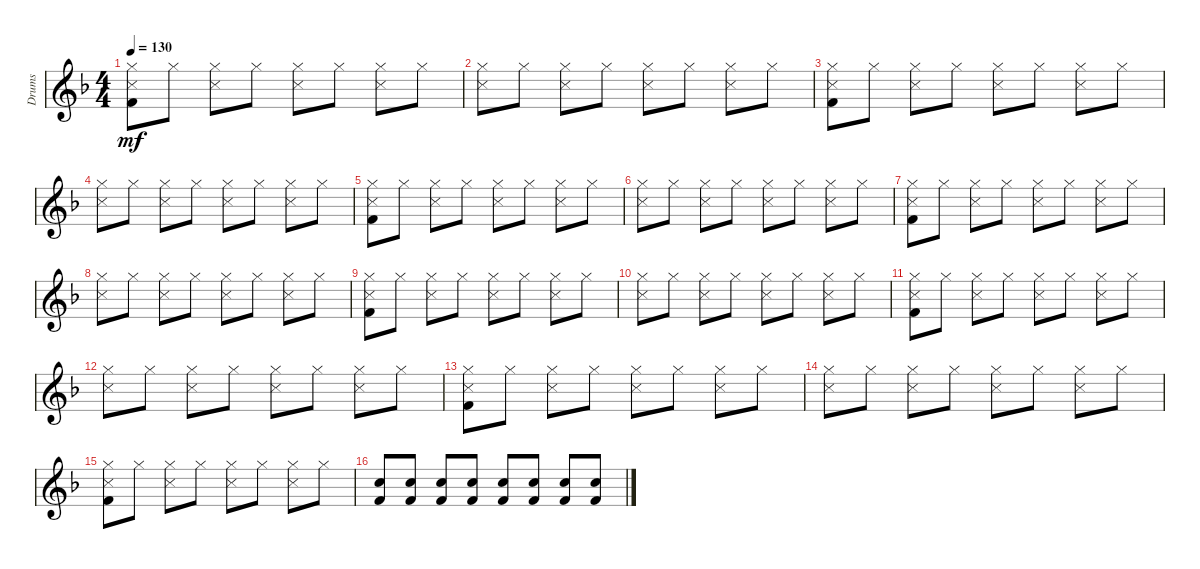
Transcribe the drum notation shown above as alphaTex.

\defaultSystemsLayout 4
\bracketExtendMode groupsimilarinstruments
\otherSystemsTrackNameOrientation horizontal
\track ("Drumkit" "Drums") {instrument percussion}
\staff {score}
\articulation defaults
\ts (4 4)
\tempo 130
\clef g2
\ks f
("Hi-Hat (closed)"{acc forcenatural} "Snare (side stick) 3"{acc forcenatural} "Kick (hit) 2"{acc forcenatural}).8{dy mf beam Down} "Hi-Hat (closed)"{acc forcenatural}.8{beam Down} ("Hi-Hat (closed)"{acc forcenatural} "Snare (side stick) 3"{acc forcenatural}).8{beam Down} "Hi-Hat (closed)"{acc forcenatural}.8{beam Down} ("Hi-Hat (closed)"{acc forcenatural} "Snare (side stick) 3"{acc forcenatural}).8{beam Down} "Hi-Hat (closed)"{acc forcenatural}.8{beam Down} ("Hi-Hat (closed)"{acc forcenatural} "Snare (side stick) 3"{acc forcenatural}).8{beam Down} "Hi-Hat (closed)"{acc forcenatural}.8{beam Down} |
("Hi-Hat (closed)"{acc forcenatural} "Snare (side stick) 3"{acc forcenatural}).8{beam Down} "Hi-Hat (closed)"{acc forcenatural}.8{beam Down} ("Hi-Hat (closed)"{acc forcenatural} "Snare (side stick) 3"{acc forcenatural}).8{beam Down} "Hi-Hat (closed)"{acc forcenatural}.8{beam Down} ("Hi-Hat (closed)"{acc forcenatural} "Snare (side stick) 3"{acc forcenatural}).8{beam Down} "Hi-Hat (closed)"{acc forcenatural}.8{beam Down} ("Hi-Hat (closed)"{acc forcenatural} "Snare (side stick) 3"{acc forcenatural}).8{beam Down} "Hi-Hat (closed)"{acc forcenatural}.8{beam Down} |
("Hi-Hat (closed)"{acc forcenatural} "Snare (side stick) 3"{acc forcenatural} "Kick (hit) 2"{acc forcenatural}).8{beam Down} "Hi-Hat (closed)"{acc forcenatural}.8{beam Down} ("Hi-Hat (closed)"{acc forcenatural} "Snare (side stick) 3"{acc forcenatural}).8{beam Down} "Hi-Hat (closed)"{acc forcenatural}.8{beam Down} ("Hi-Hat (closed)"{acc forcenatural} "Snare (side stick) 3"{acc forcenatural}).8{beam Down} "Hi-Hat (closed)"{acc forcenatural}.8{beam Down} ("Hi-Hat (closed)"{acc forcenatural} "Snare (side stick) 3"{acc forcenatural}).8{beam Down} "Hi-Hat (closed)"{acc forcenatural}.8{beam Down} |
("Hi-Hat (closed)"{acc forcenatural} "Snare (side stick) 3"{acc forcenatural}).8{beam Down} "Hi-Hat (closed)"{acc forcenatural}.8{beam Down} ("Hi-Hat (closed)"{acc forcenatural} "Snare (side stick) 3"{acc forcenatural}).8{beam Down} "Hi-Hat (closed)"{acc forcenatural}.8{beam Down} ("Hi-Hat (closed)"{acc forcenatural} "Snare (side stick) 3"{acc forcenatural}).8{beam Down} "Hi-Hat (closed)"{acc forcenatural}.8{beam Down} ("Hi-Hat (closed)"{acc forcenatural} "Snare (side stick) 3"{acc forcenatural}).8{beam Down} "Hi-Hat (closed)"{acc forcenatural}.8{beam Down} |
("Hi-Hat (closed)"{acc forcenatural} "Snare (side stick) 3"{acc forcenatural} "Kick (hit) 2"{acc forcenatural}).8{beam Down} "Hi-Hat (closed)"{acc forcenatural}.8{beam Down} ("Hi-Hat (closed)"{acc forcenatural} "Snare (side stick) 3"{acc forcenatural}).8{beam Down} "Hi-Hat (closed)"{acc forcenatural}.8{beam Down} ("Hi-Hat (closed)"{acc forcenatural} "Snare (side stick) 3"{acc forcenatural}).8{beam Down} "Hi-Hat (closed)"{acc forcenatural}.8{beam Down} ("Hi-Hat (closed)"{acc forcenatural} "Snare (side stick) 3"{acc forcenatural}).8{beam Down} "Hi-Hat (closed)"{acc forcenatural}.8{beam Down} |
("Hi-Hat (closed)"{acc forcenatural} "Snare (side stick) 3"{acc forcenatural}).8{beam Down} "Hi-Hat (closed)"{acc forcenatural}.8{beam Down} ("Hi-Hat (closed)"{acc forcenatural} "Snare (side stick) 3"{acc forcenatural}).8{beam Down} "Hi-Hat (closed)"{acc forcenatural}.8{beam Down} ("Hi-Hat (closed)"{acc forcenatural} "Snare (side stick) 3"{acc forcenatural}).8{beam Down} "Hi-Hat (closed)"{acc forcenatural}.8{beam Down} ("Hi-Hat (closed)"{acc forcenatural} "Snare (side stick) 3"{acc forcenatural}).8{beam Down} "Hi-Hat (closed)"{acc forcenatural}.8{beam Down} |
("Hi-Hat (closed)"{acc forcenatural} "Snare (side stick) 3"{acc forcenatural} "Kick (hit) 2"{acc forcenatural}).8{beam Down} "Hi-Hat (closed)"{acc forcenatural}.8{beam Down} ("Hi-Hat (closed)"{acc forcenatural} "Snare (side stick) 3"{acc forcenatural}).8{beam Down} "Hi-Hat (closed)"{acc forcenatural}.8{beam Down} ("Hi-Hat (closed)"{acc forcenatural} "Snare (side stick) 3"{acc forcenatural}).8{beam Down} "Hi-Hat (closed)"{acc forcenatural}.8{beam Down} ("Hi-Hat (closed)"{acc forcenatural} "Snare (side stick) 3"{acc forcenatural}).8{beam Down} "Hi-Hat (closed)"{acc forcenatural}.8{beam Down} |
("Hi-Hat (closed)"{acc forcenatural} "Snare (side stick) 3"{acc forcenatural}).8{beam Down} "Hi-Hat (closed)"{acc forcenatural}.8{beam Down} ("Hi-Hat (closed)"{acc forcenatural} "Snare (side stick) 3"{acc forcenatural}).8{beam Down} "Hi-Hat (closed)"{acc forcenatural}.8{beam Down} ("Hi-Hat (closed)"{acc forcenatural} "Snare (side stick) 3"{acc forcenatural}).8{beam Down} "Hi-Hat (closed)"{acc forcenatural}.8{beam Down} ("Hi-Hat (closed)"{acc forcenatural} "Snare (side stick) 3"{acc forcenatural}).8{beam Down} "Hi-Hat (closed)"{acc forcenatural}.8{beam Down} |
("Hi-Hat (closed)"{acc forcenatural} "Snare (side stick) 3"{acc forcenatural} "Kick (hit) 2"{acc forcenatural}).8{beam Down} "Hi-Hat (closed)"{acc forcenatural}.8{beam Down} ("Hi-Hat (closed)"{acc forcenatural} "Snare (side stick) 3"{acc forcenatural}).8{beam Down} "Hi-Hat (closed)"{acc forcenatural}.8{beam Down} ("Hi-Hat (closed)"{acc forcenatural} "Snare (side stick) 3"{acc forcenatural}).8{beam Down} "Hi-Hat (closed)"{acc forcenatural}.8{beam Down} ("Hi-Hat (closed)"{acc forcenatural} "Snare (side stick) 3"{acc forcenatural}).8{beam Down} "Hi-Hat (closed)"{acc forcenatural}.8{beam Down} |
("Hi-Hat (closed)"{acc forcenatural} "Snare (side stick) 3"{acc forcenatural}).8{beam Down} "Hi-Hat (closed)"{acc forcenatural}.8{beam Down} ("Hi-Hat (closed)"{acc forcenatural} "Snare (side stick) 3"{acc forcenatural}).8{beam Down} "Hi-Hat (closed)"{acc forcenatural}.8{beam Down} ("Hi-Hat (closed)"{acc forcenatural} "Snare (side stick) 3"{acc forcenatural}).8{beam Down} "Hi-Hat (closed)"{acc forcenatural}.8{beam Down} ("Hi-Hat (closed)"{acc forcenatural} "Snare (side stick) 3"{acc forcenatural}).8{beam Down} "Hi-Hat (closed)"{acc forcenatural}.8{beam Down} |
("Hi-Hat (closed)"{acc forcenatural} "Snare (side stick) 3"{acc forcenatural} "Kick (hit) 2"{acc forcenatural}).8{beam Down} "Hi-Hat (closed)"{acc forcenatural}.8{beam Down} ("Hi-Hat (closed)"{acc forcenatural} "Snare (side stick) 3"{acc forcenatural}).8{beam Down} "Hi-Hat (closed)"{acc forcenatural}.8{beam Down} ("Hi-Hat (closed)"{acc forcenatural} "Snare (side stick) 3"{acc forcenatural}).8{beam Down} "Hi-Hat (closed)"{acc forcenatural}.8{beam Down} ("Hi-Hat (closed)"{acc forcenatural} "Snare (side stick) 3"{acc forcenatural}).8{beam Down} "Hi-Hat (closed)"{acc forcenatural}.8{beam Down} |
("Hi-Hat (closed)"{acc forcenatural} "Snare (side stick) 3"{acc forcenatural}).8{beam Down} "Hi-Hat (closed)"{acc forcenatural}.8{beam Down} ("Hi-Hat (closed)"{acc forcenatural} "Snare (side stick) 3"{acc forcenatural}).8{beam Down} "Hi-Hat (closed)"{acc forcenatural}.8{beam Down} ("Hi-Hat (closed)"{acc forcenatural} "Snare (side stick) 3"{acc forcenatural}).8{beam Down} "Hi-Hat (closed)"{acc forcenatural}.8{beam Down} ("Hi-Hat (closed)"{acc forcenatural} "Snare (side stick) 3"{acc forcenatural}).8{beam Down} "Hi-Hat (closed)"{acc forcenatural}.8{beam Down} |
("Hi-Hat (closed)"{acc forcenatural} "Snare (side stick) 3"{acc forcenatural} "Kick (hit) 2"{acc forcenatural}).8{beam Down} "Hi-Hat (closed)"{acc forcenatural}.8{beam Down} ("Hi-Hat (closed)"{acc forcenatural} "Snare (side stick) 3"{acc forcenatural}).8{beam Down} "Hi-Hat (closed)"{acc forcenatural}.8{beam Down} ("Hi-Hat (closed)"{acc forcenatural} "Snare (side stick) 3"{acc forcenatural}).8{beam Down} "Hi-Hat (closed)"{acc forcenatural}.8{beam Down} ("Hi-Hat (closed)"{acc forcenatural} "Snare (side stick) 3"{acc forcenatural}).8{beam Down} "Hi-Hat (closed)"{acc forcenatural}.8{beam Down} |
("Hi-Hat (closed)"{acc forcenatural} "Snare (side stick) 3"{acc forcenatural}).8{beam Down} "Hi-Hat (closed)"{acc forcenatural}.8{beam Down} ("Hi-Hat (closed)"{acc forcenatural} "Snare (side stick) 3"{acc forcenatural}).8{beam Down} "Hi-Hat (closed)"{acc forcenatural}.8{beam Down} ("Hi-Hat (closed)"{acc forcenatural} "Snare (side stick) 3"{acc forcenatural}).8{beam Down} "Hi-Hat (closed)"{acc forcenatural}.8{beam Down} ("Hi-Hat (closed)"{acc forcenatural} "Snare (side stick) 3"{acc forcenatural}).8{beam Down} "Hi-Hat (closed)"{acc forcenatural}.8{beam Down} |
("Hi-Hat (closed)"{acc forcenatural} "Snare (side stick) 3"{acc forcenatural} "Kick (hit) 2"{acc forcenatural}).8{beam Down} "Hi-Hat (closed)"{acc forcenatural}.8{beam Down} ("Hi-Hat (closed)"{acc forcenatural} "Snare (side stick) 3"{acc forcenatural}).8{beam Down} "Hi-Hat (closed)"{acc forcenatural}.8{beam Down} ("Hi-Hat (closed)"{acc forcenatural} "Snare (side stick) 3"{acc forcenatural}).8{beam Down} "Hi-Hat (closed)"{acc forcenatural}.8{beam Down} ("Hi-Hat (closed)"{acc forcenatural} "Snare (side stick) 3"{acc forcenatural}).8{beam Down} "Hi-Hat (closed)"{acc forcenatural}.8{beam Down} |
("Snare (hit) 2"{acc forcenatural} "Kick (hit) 2"{acc forcenatural}).8{beam Up} ("Snare (hit) 2"{acc forcenatural} "Kick (hit) 2"{acc forcenatural}).8{beam Up} ("Snare (hit) 2"{acc forcenatural} "Kick (hit) 2"{acc forcenatural}).8{beam Up} ("Snare (hit) 2"{acc forcenatural} "Kick (hit) 2"{acc forcenatural}).8{beam Up} ("Snare (hit) 2"{acc forcenatural} "Kick (hit) 2"{acc forcenatural}).8{beam Up} ("Snare (hit) 2"{acc forcenatural} "Kick (hit) 2"{acc forcenatural}).8{beam Up} ("Snare (hit) 2"{acc forcenatural} "Kick (hit) 2"{acc forcenatural}).8{beam Up} ("Snare (hit) 2"{acc forcenatural} "Kick (hit) 2"{acc forcenatural}).8{beam Up}
